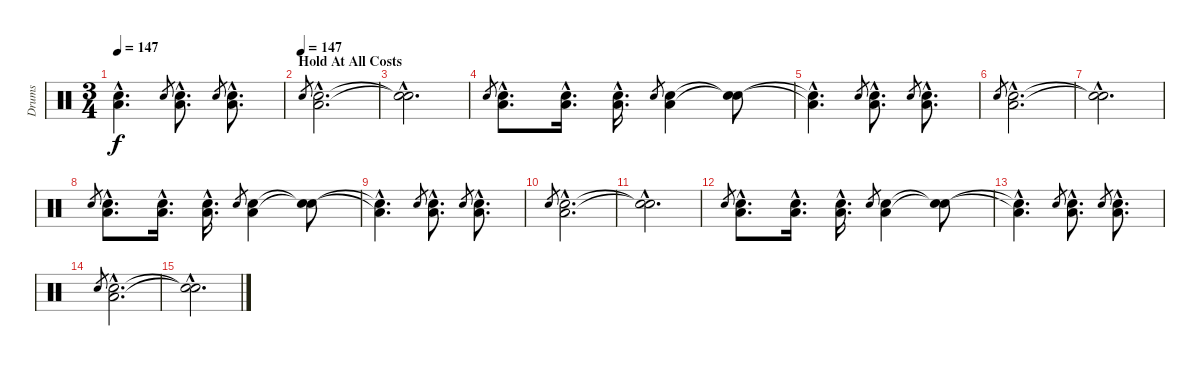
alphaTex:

\track ("Drums" "Drums") {instrument percussion}
\staff {score}
\articulation defaults
\ts (3 4)
\tempo 147
\clef neutral
\ks c
("Snare (hit) 2"{hac t} "Low Floor Tom (hit)"{hac t}).4{d dy f} "Snare (hit) 2".8{gr} ("Snare (hit) 2"{hac} "Low Floor Tom (hit)"{hac}).8{d} "Snare (hit) 2".8{gr} ("Snare (hit) 2"{hac} "Low Floor Tom (hit)"{hac}).8{d} |
\section ("" "Hold At All Costs")
\tempo (147)
"Snare (hit) 2".8{gr} ("Snare (hit) 2"{hac} "Low Floor Tom (hit)"{hac}).2{d} |
("Snare (hit)"{hac t} "Snare (hit)"{hac t}).2{d} |
"Snare (hit) 2".8{gr} ("Snare (hit) 2"{hac} "Low Floor Tom (hit)"{hac}).8{d volume 6} ("Snare (hit) 2"{hac} "Low Floor Tom (hit)"{hac}).16{d} ("Snare (hit) 2"{hac} "Low Floor Tom (hit)"{hac}).16{d} "Snare (hit) 2".8{gr} ("Snare (hit) 2" "Low Floor Tom (hit)").4 ("Snare (hit)"{t} "Snare (hit)"{t}).8 |
("Snare (hit) 2"{hac t} "Low Floor Tom (hit)"{hac t}).4{d} "Snare (hit) 2".8{gr} ("Snare (hit) 2"{hac} "Low Floor Tom (hit)"{hac}).8{d} "Snare (hit) 2".8{gr} ("Snare (hit) 2"{hac} "Low Floor Tom (hit)"{hac}).8{d} |
"Snare (hit) 2".8{gr} ("Snare (hit) 2"{hac} "Low Floor Tom (hit)"{hac}).2{d} |
("Snare (hit)"{hac t} "Snare (hit)"{hac t}).2{d} |
"Snare (hit) 2".8{gr} ("Snare (hit) 2"{hac} "Low Floor Tom (hit)"{hac}).8{d volume 4} ("Snare (hit) 2"{hac} "Low Floor Tom (hit)"{hac}).16{d} ("Snare (hit) 2"{hac} "Low Floor Tom (hit)"{hac}).16{d} "Snare (hit) 2".8{gr} ("Snare (hit) 2" "Low Floor Tom (hit)").4 ("Snare (hit)"{t} "Snare (hit)"{t}).8 |
("Snare (hit) 2"{hac t} "Low Floor Tom (hit)"{hac t}).4{d} "Snare (hit) 2".8{gr} ("Snare (hit) 2"{hac} "Low Floor Tom (hit)"{hac}).8{d} "Snare (hit) 2".8{gr} ("Snare (hit) 2"{hac} "Low Floor Tom (hit)"{hac}).8{d} |
"Snare (hit) 2".8{gr} ("Snare (hit) 2"{hac} "Low Floor Tom (hit)"{hac}).2{d} |
("Snare (hit)"{hac t} "Snare (hit)"{hac t}).2{d} |
"Snare (hit) 2".8{gr} ("Snare (hit) 2"{hac} "Low Floor Tom (hit)"{hac}).8{d volume 0} ("Snare (hit) 2"{hac} "Low Floor Tom (hit)"{hac}).16{d} ("Snare (hit) 2"{hac} "Low Floor Tom (hit)"{hac}).16{d} "Snare (hit) 2".8{gr} ("Snare (hit) 2" "Low Floor Tom (hit)").4 ("Snare (hit)"{t} "Snare (hit)"{t}).8 |
("Snare (hit) 2"{hac t} "Low Floor Tom (hit)"{hac t}).4{d} "Snare (hit) 2".8{gr} ("Snare (hit) 2"{hac} "Low Floor Tom (hit)"{hac}).8{d} "Snare (hit) 2".8{gr} ("Snare (hit) 2"{hac} "Low Floor Tom (hit)"{hac}).8{d} |
"Snare (hit) 2".8{gr} ("Snare (hit) 2"{hac} "Low Floor Tom (hit)"{hac}).2{d} |
("Snare (hit)"{hac t} "Snare (hit)"{hac t}).2{d}
